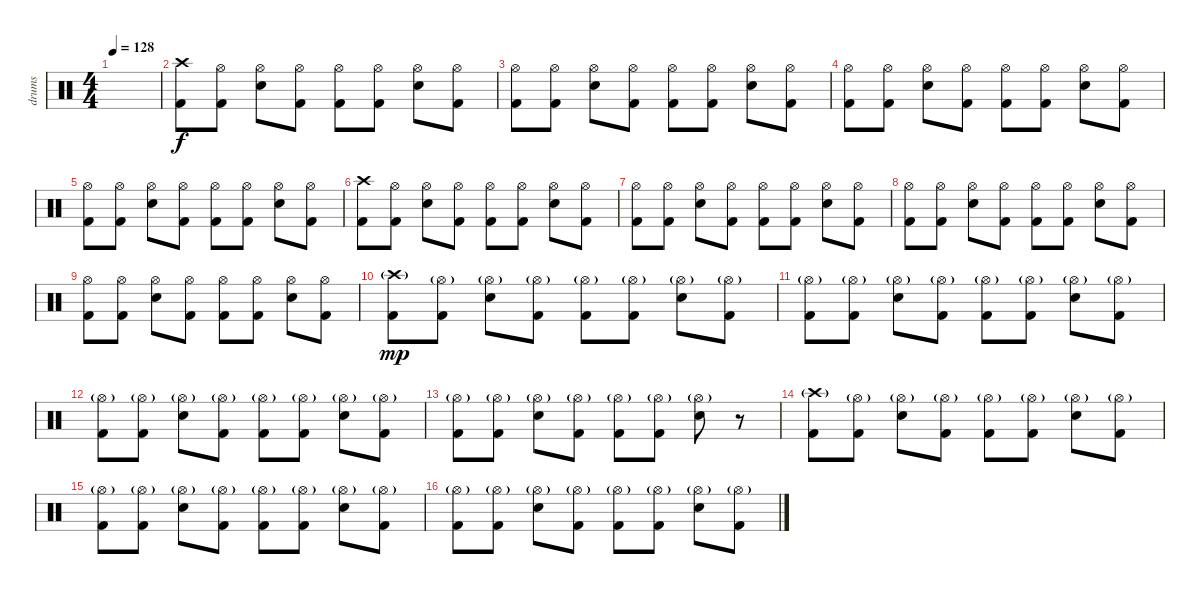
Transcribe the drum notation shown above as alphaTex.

\track ("drums" "drums") {instrument percussion}
\staff {score}
\articulation defaults
\ts (4 4)
\tempo 128
\clef neutral
\ks c
|
("Crash high (hit)" "Kick (hit) 2").8 ("Hi-Hat (open)" "Kick (hit) 2").8 ("Hi-Hat (open)" "Electric Snare (hit)").8 ("Hi-Hat (open)" "Kick (hit) 2").8 ("Hi-Hat (open)" "Kick (hit) 2").8 ("Hi-Hat (open)" "Kick (hit) 2").8 ("Hi-Hat (open)" "Electric Snare (hit)").8 ("Hi-Hat (open)" "Kick (hit) 2").8 |
("Hi-Hat (open)" "Kick (hit) 2").8 ("Hi-Hat (open)" "Kick (hit) 2").8 ("Hi-Hat (open)" "Electric Snare (hit)").8 ("Hi-Hat (open)" "Kick (hit) 2").8 ("Hi-Hat (open)" "Kick (hit) 2").8 ("Hi-Hat (open)" "Kick (hit) 2").8 ("Hi-Hat (open)" "Electric Snare (hit)").8 ("Hi-Hat (open)" "Kick (hit) 2").8 |
("Hi-Hat (open)" "Kick (hit) 2").8 ("Hi-Hat (open)" "Kick (hit) 2").8 ("Hi-Hat (open)" "Electric Snare (hit)").8 ("Hi-Hat (open)" "Kick (hit) 2").8 ("Hi-Hat (open)" "Kick (hit) 2").8 ("Hi-Hat (open)" "Kick (hit) 2").8 ("Hi-Hat (open)" "Electric Snare (hit)").8 ("Hi-Hat (open)" "Kick (hit) 2").8 |
("Hi-Hat (open)" "Kick (hit) 2").8 ("Hi-Hat (open)" "Kick (hit) 2").8 ("Hi-Hat (open)" "Electric Snare (hit)").8 ("Hi-Hat (open)" "Kick (hit) 2").8 ("Hi-Hat (open)" "Kick (hit) 2").8 ("Hi-Hat (open)" "Kick (hit) 2").8 ("Hi-Hat (open)" "Electric Snare (hit)").8 ("Hi-Hat (open)" "Kick (hit) 2").8 |
("Crash high (hit)" "Kick (hit) 2").8 ("Hi-Hat (open)" "Kick (hit) 2").8 ("Hi-Hat (open)" "Electric Snare (hit)").8 ("Hi-Hat (open)" "Kick (hit) 2").8 ("Hi-Hat (open)" "Kick (hit) 2").8 ("Hi-Hat (open)" "Kick (hit) 2").8 ("Hi-Hat (open)" "Electric Snare (hit)").8 ("Hi-Hat (open)" "Kick (hit) 2").8 |
("Hi-Hat (open)" "Kick (hit) 2").8 ("Hi-Hat (open)" "Kick (hit) 2").8 ("Hi-Hat (open)" "Electric Snare (hit)").8 ("Hi-Hat (open)" "Kick (hit) 2").8 ("Hi-Hat (open)" "Kick (hit) 2").8 ("Hi-Hat (open)" "Kick (hit) 2").8 ("Hi-Hat (open)" "Electric Snare (hit)").8 ("Hi-Hat (open)" "Kick (hit) 2").8 |
("Hi-Hat (open)" "Kick (hit) 2").8 ("Hi-Hat (open)" "Kick (hit) 2").8 ("Hi-Hat (open)" "Electric Snare (hit)").8 ("Hi-Hat (open)" "Kick (hit) 2").8 ("Hi-Hat (open)" "Kick (hit) 2").8 ("Hi-Hat (open)" "Kick (hit) 2").8 ("Hi-Hat (open)" "Electric Snare (hit)").8 ("Hi-Hat (open)" "Kick (hit) 2").8 |
("Hi-Hat (open)" "Kick (hit) 2").8 ("Hi-Hat (open)" "Kick (hit) 2").8 ("Hi-Hat (open)" "Electric Snare (hit)").8 ("Hi-Hat (open)" "Kick (hit) 2").8 ("Hi-Hat (open)" "Kick (hit) 2").8 ("Hi-Hat (open)" "Kick (hit) 2").8 ("Hi-Hat (open)" "Electric Snare (hit)").8 ("Hi-Hat (open)" "Kick (hit) 2").8 |
("Crash high (hit)"{g} "Kick (hit) 2").8{dy mp} ("Hi-Hat (open)"{g} "Kick (hit) 2").8 ("Hi-Hat (open)"{g} "Electric Snare (hit)").8 ("Hi-Hat (open)"{g} "Kick (hit) 2").8 ("Hi-Hat (open)"{g} "Kick (hit) 2").8 ("Hi-Hat (open)"{g} "Kick (hit) 2").8 ("Hi-Hat (open)"{g} "Electric Snare (hit)").8 ("Hi-Hat (open)"{g} "Kick (hit) 2").8 |
("Hi-Hat (open)"{g} "Kick (hit) 2").8 ("Hi-Hat (open)"{g} "Kick (hit) 2").8 ("Hi-Hat (open)"{g} "Electric Snare (hit)").8 ("Hi-Hat (open)"{g} "Kick (hit) 2").8 ("Hi-Hat (open)"{g} "Kick (hit) 2").8 ("Hi-Hat (open)"{g} "Kick (hit) 2").8 ("Hi-Hat (open)"{g} "Electric Snare (hit)").8 ("Hi-Hat (open)"{g} "Kick (hit) 2").8 |
("Hi-Hat (open)"{g} "Kick (hit) 2").8 ("Hi-Hat (open)"{g} "Kick (hit) 2").8 ("Hi-Hat (open)"{g} "Electric Snare (hit)").8 ("Hi-Hat (open)"{g} "Kick (hit) 2").8 ("Hi-Hat (open)"{g} "Kick (hit) 2").8 ("Hi-Hat (open)"{g} "Kick (hit) 2").8 ("Hi-Hat (open)"{g} "Electric Snare (hit)").8 ("Hi-Hat (open)"{g} "Kick (hit) 2").8 |
("Hi-Hat (open)"{g} "Kick (hit) 2").8 ("Hi-Hat (open)"{g} "Kick (hit) 2").8 ("Hi-Hat (open)"{g} "Electric Snare (hit)").8 ("Hi-Hat (open)"{g} "Kick (hit) 2").8 ("Hi-Hat (open)"{g} "Kick (hit) 2").8 ("Hi-Hat (open)"{g} "Kick (hit) 2").8 ("Hi-Hat (open)"{g} "Electric Snare (hit)").8 r.8 |
("Crash high (hit)"{g} "Kick (hit) 2").8 ("Hi-Hat (open)"{g} "Kick (hit) 2").8 ("Hi-Hat (open)"{g} "Electric Snare (hit)").8 ("Hi-Hat (open)"{g} "Kick (hit) 2").8 ("Hi-Hat (open)"{g} "Kick (hit) 2").8 ("Hi-Hat (open)"{g} "Kick (hit) 2").8 ("Hi-Hat (open)"{g} "Electric Snare (hit)").8 ("Hi-Hat (open)"{g} "Kick (hit) 2").8 |
("Hi-Hat (open)"{g} "Kick (hit) 2").8 ("Hi-Hat (open)"{g} "Kick (hit) 2").8 ("Hi-Hat (open)"{g} "Electric Snare (hit)").8 ("Hi-Hat (open)"{g} "Kick (hit) 2").8 ("Hi-Hat (open)"{g} "Kick (hit) 2").8 ("Hi-Hat (open)"{g} "Kick (hit) 2").8 ("Hi-Hat (open)"{g} "Electric Snare (hit)").8 ("Hi-Hat (open)"{g} "Kick (hit) 2").8 |
("Hi-Hat (open)"{g} "Kick (hit) 2").8 ("Hi-Hat (open)"{g} "Kick (hit) 2").8 ("Hi-Hat (open)"{g} "Electric Snare (hit)").8 ("Hi-Hat (open)"{g} "Kick (hit) 2").8 ("Hi-Hat (open)"{g} "Kick (hit) 2").8 ("Hi-Hat (open)"{g} "Kick (hit) 2").8 ("Hi-Hat (open)"{g} "Electric Snare (hit)").8 ("Hi-Hat (open)"{g} "Kick (hit) 2").8
